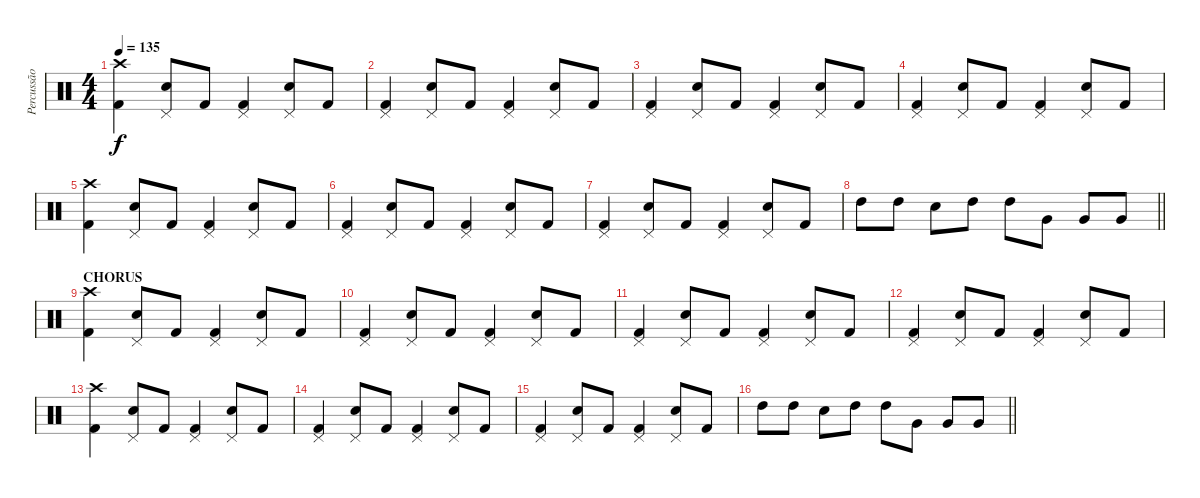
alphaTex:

\track ("Percussão" "Percussão") {instrument percussion}
\staff {score}
\articulation defaults
\ts (4 4)
\tempo 135
\clef neutral
\ks c
("Crash high (hit)" "Kick (hit) 2").4{dy f} ("Pedal Hi-Hat (hit)" "Snare (hit) 2").8 "Kick (hit) 2".8 ("Pedal Hi-Hat (hit)" "Kick (hit) 2").4 ("Pedal Hi-Hat (hit)" "Snare (hit) 2").8 "Kick (hit) 2".8 |
("Pedal Hi-Hat (hit)" "Kick (hit) 2").4 ("Pedal Hi-Hat (hit)" "Snare (hit) 2").8 "Kick (hit) 2".8 ("Pedal Hi-Hat (hit)" "Kick (hit) 2").4 ("Pedal Hi-Hat (hit)" "Snare (hit) 2").8 "Kick (hit) 2".8 |
("Pedal Hi-Hat (hit)" "Kick (hit) 2").4 ("Pedal Hi-Hat (hit)" "Snare (hit) 2").8 "Kick (hit) 2".8 ("Pedal Hi-Hat (hit)" "Kick (hit) 2").4 ("Pedal Hi-Hat (hit)" "Snare (hit) 2").8 "Kick (hit) 2".8 |
("Pedal Hi-Hat (hit)" "Kick (hit) 2").4 ("Pedal Hi-Hat (hit)" "Snare (hit) 2").8 "Kick (hit) 2".8 ("Pedal Hi-Hat (hit)" "Kick (hit) 2").4 ("Pedal Hi-Hat (hit)" "Snare (hit) 2").8 "Kick (hit) 2".8 |
("Crash high (hit)" "Kick (hit) 2").4 ("Pedal Hi-Hat (hit)" "Snare (hit) 2").8 "Kick (hit) 2".8 ("Pedal Hi-Hat (hit)" "Kick (hit) 2").4 ("Pedal Hi-Hat (hit)" "Snare (hit) 2").8 "Kick (hit) 2".8 |
("Pedal Hi-Hat (hit)" "Kick (hit) 2").4 ("Pedal Hi-Hat (hit)" "Snare (hit) 2").8 "Kick (hit) 2".8 ("Pedal Hi-Hat (hit)" "Kick (hit) 2").4 ("Pedal Hi-Hat (hit)" "Snare (hit) 2").8 "Kick (hit) 2".8 |
("Pedal Hi-Hat (hit)" "Kick (hit) 2").4 ("Pedal Hi-Hat (hit)" "Snare (hit) 2").8 "Kick (hit) 2".8 ("Pedal Hi-Hat (hit)" "Kick (hit) 2").4 ("Pedal Hi-Hat (hit)" "Snare (hit) 2").8 "Kick (hit) 2".8 |
\barLineRight lightlight "High Tom (hit)".8 "High Tom (hit)".8 "Snare (hit) 2".8 "High Tom (hit)".8 "High Tom (hit)".8 "Very Low Tom (hit)".8 "Very Low Tom (hit)".8 "Very Low Tom (hit)".8
|
\section ("" "CHORUS")
("Crash high (hit)" "Kick (hit) 2").4 ("Pedal Hi-Hat (hit)" "Snare (hit) 2").8 "Kick (hit) 2".8 ("Pedal Hi-Hat (hit)" "Kick (hit) 2").4 ("Pedal Hi-Hat (hit)" "Snare (hit) 2").8 "Kick (hit) 2".8 |
("Pedal Hi-Hat (hit)" "Kick (hit) 2").4 ("Pedal Hi-Hat (hit)" "Snare (hit) 2").8 "Kick (hit) 2".8 ("Pedal Hi-Hat (hit)" "Kick (hit) 2").4 ("Pedal Hi-Hat (hit)" "Snare (hit) 2").8 "Kick (hit) 2".8 |
("Pedal Hi-Hat (hit)" "Kick (hit) 2").4 ("Pedal Hi-Hat (hit)" "Snare (hit) 2").8 "Kick (hit) 2".8 ("Pedal Hi-Hat (hit)" "Kick (hit) 2").4 ("Pedal Hi-Hat (hit)" "Snare (hit) 2").8 "Kick (hit) 2".8 |
("Pedal Hi-Hat (hit)" "Kick (hit) 2").4 ("Pedal Hi-Hat (hit)" "Snare (hit) 2").8 "Kick (hit) 2".8 ("Pedal Hi-Hat (hit)" "Kick (hit) 2").4 ("Pedal Hi-Hat (hit)" "Snare (hit) 2").8 "Kick (hit) 2".8 |
("Crash high (hit)" "Kick (hit) 2").4 ("Pedal Hi-Hat (hit)" "Snare (hit) 2").8 "Kick (hit) 2".8 ("Pedal Hi-Hat (hit)" "Kick (hit) 2").4 ("Pedal Hi-Hat (hit)" "Snare (hit) 2").8 "Kick (hit) 2".8 |
("Pedal Hi-Hat (hit)" "Kick (hit) 2").4 ("Pedal Hi-Hat (hit)" "Snare (hit) 2").8 "Kick (hit) 2".8 ("Pedal Hi-Hat (hit)" "Kick (hit) 2").4 ("Pedal Hi-Hat (hit)" "Snare (hit) 2").8 "Kick (hit) 2".8 |
("Pedal Hi-Hat (hit)" "Kick (hit) 2").4 ("Pedal Hi-Hat (hit)" "Snare (hit) 2").8 "Kick (hit) 2".8 ("Pedal Hi-Hat (hit)" "Kick (hit) 2").4 ("Pedal Hi-Hat (hit)" "Snare (hit) 2").8 "Kick (hit) 2".8 |
\barLineRight lightlight "High Tom (hit)".8 "High Tom (hit)".8 "Snare (hit) 2".8 "High Tom (hit)".8 "High Tom (hit)".8 "Very Low Tom (hit)".8 "Very Low Tom (hit)".8 "Very Low Tom (hit)".8
